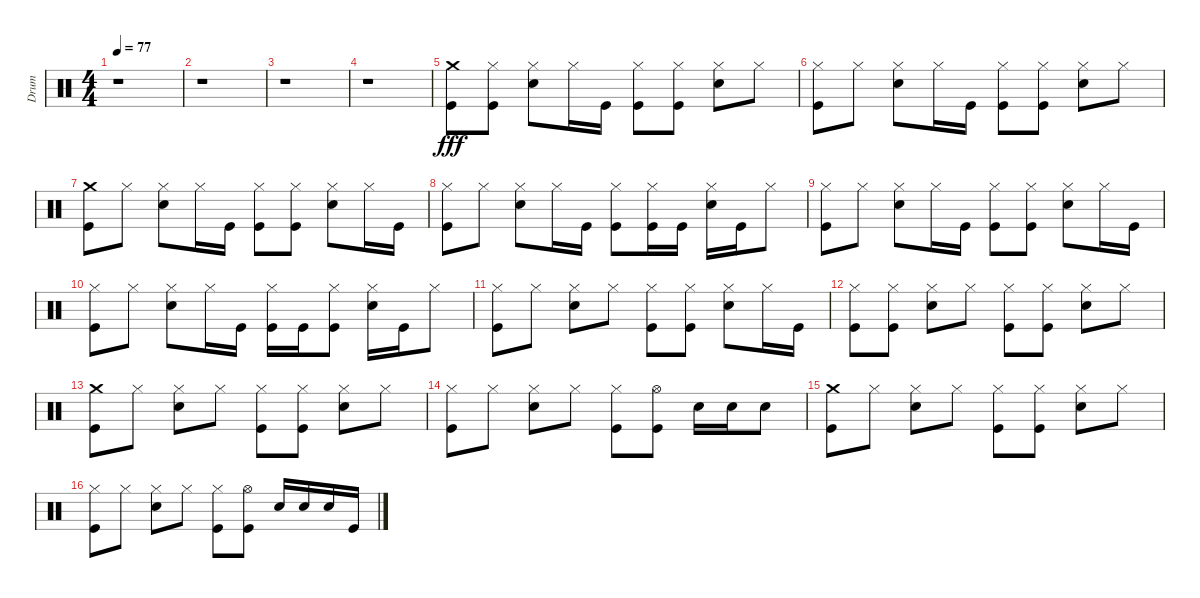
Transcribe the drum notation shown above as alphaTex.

\track ("Drum" "Drum") {instrument percussion}
\staff {score}
\articulation defaults
\ts (4 4)
\tempo 77
\clef neutral
\ks c
r.1{dy fff} |
r.1 |
r.1 |
r.1 |
("Crash medium (hit)" "Kick (hit)").8 ("Hi-Hat (closed)" "Kick (hit)").8 ("Hi-Hat (closed)" "Snare (hit) 2").8 "Hi-Hat (closed)".16 "Kick (hit)".16 ("Hi-Hat (closed)" "Kick (hit)").8 ("Hi-Hat (closed)" "Kick (hit)").8 ("Hi-Hat (closed)" "Snare (hit) 2").8 "Hi-Hat (closed)".8 |
("Hi-Hat (closed)" "Kick (hit)").8 "Hi-Hat (closed)".8 ("Hi-Hat (closed)" "Snare (hit) 2").8 "Hi-Hat (closed)".16 "Kick (hit)".16 ("Hi-Hat (closed)" "Kick (hit)").8 ("Hi-Hat (closed)" "Kick (hit)").8 ("Hi-Hat (closed)" "Snare (hit) 2").8 "Hi-Hat (closed)".8 |
("Crash medium (hit)" "Kick (hit)").8 "Hi-Hat (closed)".8 ("Hi-Hat (closed)" "Snare (hit) 2").8 "Hi-Hat (closed)".16 "Kick (hit)".16 ("Hi-Hat (closed)" "Kick (hit)").8 ("Hi-Hat (closed)" "Kick (hit)").8 ("Hi-Hat (closed)" "Snare (hit) 2").8 "Hi-Hat (closed)".16 "Kick (hit)".16 |
("Hi-Hat (closed)" "Kick (hit)").8 "Hi-Hat (closed)".8 ("Hi-Hat (closed)" "Snare (hit) 2").8 "Hi-Hat (closed)".16 "Kick (hit)".16 ("Hi-Hat (closed)" "Kick (hit)").8 ("Hi-Hat (closed)" "Kick (hit)").16 "Kick (hit)".16 ("Hi-Hat (closed)" "Snare (hit) 2").16 "Kick (hit)".16 "Hi-Hat (closed)".8 |
("Hi-Hat (closed)" "Kick (hit)").8 "Hi-Hat (closed)".8 ("Hi-Hat (closed)" "Snare (hit) 2").8 "Hi-Hat (closed)".16 "Kick (hit)".16 ("Hi-Hat (closed)" "Kick (hit)").8 ("Hi-Hat (closed)" "Kick (hit)").8 ("Hi-Hat (closed)" "Snare (hit) 2").8 "Hi-Hat (closed)".16 "Kick (hit)".16 |
("Hi-Hat (closed)" "Kick (hit)").8 "Hi-Hat (closed)".8 ("Hi-Hat (closed)" "Snare (hit) 2").8 "Hi-Hat (closed)".16 "Kick (hit)".16 ("Hi-Hat (closed)" "Kick (hit)").16 "Kick (hit)".16 ("Hi-Hat (closed)" "Kick (hit)").8 ("Hi-Hat (closed)" "Snare (hit) 2").16 "Kick (hit)".16 "Hi-Hat (closed)".8 |
("Hi-Hat (closed)" "Kick (hit)").8 "Hi-Hat (closed)".8 ("Hi-Hat (closed)" "Snare (hit) 2").8 "Hi-Hat (closed)".8 ("Hi-Hat (closed)" "Kick (hit)").8 ("Hi-Hat (closed)" "Kick (hit)").8 ("Hi-Hat (closed)" "Snare (hit) 2").8 "Hi-Hat (closed)".16 "Kick (hit)".16 |
("Hi-Hat (closed)" "Kick (hit)").8 ("Hi-Hat (closed)" "Kick (hit)").8 ("Hi-Hat (closed)" "Snare (hit) 2").8 "Hi-Hat (closed)".8 ("Hi-Hat (closed)" "Kick (hit)").8 ("Hi-Hat (closed)" "Kick (hit)").8 ("Hi-Hat (closed)" "Snare (hit) 2").8 "Hi-Hat (closed)".8 |
("Crash medium (hit)" "Kick (hit)").8 "Hi-Hat (closed)".8 ("Hi-Hat (closed)" "Snare (hit) 2").8 "Hi-Hat (closed)".8 ("Hi-Hat (closed)" "Kick (hit)").8 ("Hi-Hat (closed)" "Kick (hit)").8 ("Hi-Hat (closed)" "Snare (hit) 2").8 "Hi-Hat (closed)".8 |
("Hi-Hat (closed)" "Kick (hit)").8 "Hi-Hat (closed)".8 ("Hi-Hat (closed)" "Snare (hit) 2").8 "Hi-Hat (closed)".8 ("Hi-Hat (closed)" "Kick (hit)").8 ("Hi-Hat (open)" "Kick (hit)").8 "Snare (hit) 2".16 "Snare (hit) 2".16 "Snare (hit) 2".8 |
("Crash medium (hit)" "Kick (hit)").8 "Hi-Hat (closed)".8 ("Hi-Hat (closed)" "Snare (hit) 2").8 "Hi-Hat (closed)".8 ("Hi-Hat (closed)" "Kick (hit)").8 ("Hi-Hat (closed)" "Kick (hit)").8 ("Hi-Hat (closed)" "Snare (hit) 2").8 "Hi-Hat (closed)".8 |
("Hi-Hat (closed)" "Kick (hit)").8 "Hi-Hat (closed)".8 ("Hi-Hat (closed)" "Snare (hit) 2").8 "Hi-Hat (closed)".8 ("Hi-Hat (closed)" "Kick (hit)").8 ("Hi-Hat (open)" "Kick (hit)").8 "Snare (hit) 2".16 "Snare (hit) 2".16 "Snare (hit) 2".16 "Kick (hit)".16
